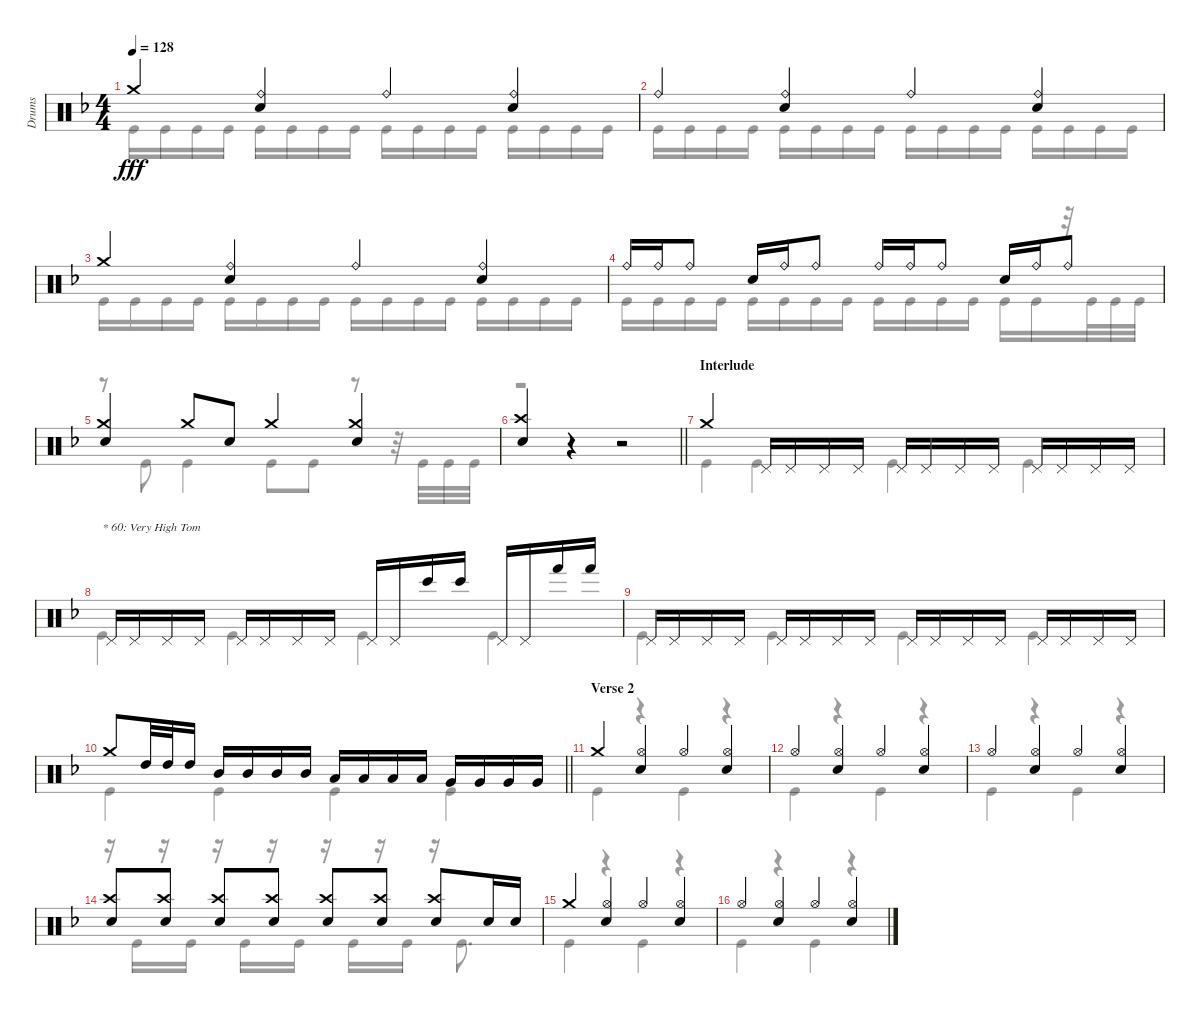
\track ("Drums" "Drums") {instrument percussion}
\staff {score}
\articulation defaults
\voice
\ts (4 4)
\tempo 128
\clef neutral
\ks dminor "Crash medium (hit)".4{dy fff}
("Ride (bell)" "Electric Snare (hit)").4 "Ride (bell)".4 ("Ride (bell)" "Electric Snare (hit)").4 |
"Ride (bell)".4 ("Ride (bell)" "Electric Snare (hit)").4 "Ride (bell)".4 ("Ride (bell)" "Electric Snare (hit)").4 |
"Crash medium (hit)".4 ("Ride (bell)" "Electric Snare (hit)").4 "Ride (bell)".4 ("Ride (bell)" "Electric Snare (hit)").4 |
"Ride (bell)".16 "Ride (bell)".16 "Ride (bell)".8 "Electric Snare (hit)".16 "Ride (bell)".16 "Ride (bell)".8 "Ride (bell)".16 "Ride (bell)".16 "Ride (bell)".8 "Electric Snare (hit)".16 "Ride (bell)".16 "Ride (bell)".8 |
("Crash medium (hit)" "Electric Snare (hit)").4 "Crash medium (hit)".8 "Electric Snare (hit)".8 "Crash medium (hit)".4 ("Crash medium (hit)" "Electric Snare (hit)").4 |
\barLineRight lightlight
("Crash high (hit)" "Electric Snare (hit)").4 r.4 r.2 |
\section ("" "Interlude")
"Crash medium (hit)".4 "Pedal Hi-Hat (hit)".16 "Pedal Hi-Hat (hit)".16 "Pedal Hi-Hat (hit)".16 "Pedal Hi-Hat (hit)".16 "Pedal Hi-Hat (hit)".16 "Pedal Hi-Hat (hit)".16 "Pedal Hi-Hat (hit)".16 "Pedal Hi-Hat (hit)".16 "Pedal Hi-Hat (hit)".16 "Pedal Hi-Hat (hit)".16 "Pedal Hi-Hat (hit)".16 "Pedal Hi-Hat (hit)".16 |
"Pedal Hi-Hat (hit)".16{txt "* 60: Very High Tom"} "Pedal Hi-Hat (hit)".16 "Pedal Hi-Hat (hit)".16 "Pedal Hi-Hat (hit)".16 "Pedal Hi-Hat (hit)".16 "Pedal Hi-Hat (hit)".16 "Pedal Hi-Hat (hit)".16 "Pedal Hi-Hat (hit)".16 "Pedal Hi-Hat (hit)".16 "Pedal Hi-Hat (hit)".16 "Bongo High (hit)".16 "Bongo High (hit)".16 "Pedal Hi-Hat (hit)".16 "Pedal Hi-Hat (hit)".16 "Hand (hit)".16 "Hand (hit)".16 |
"Pedal Hi-Hat (hit)".16 "Pedal Hi-Hat (hit)".16 "Pedal Hi-Hat (hit)".16 "Pedal Hi-Hat (hit)".16 "Pedal Hi-Hat (hit)".16 "Pedal Hi-Hat (hit)".16 "Pedal Hi-Hat (hit)".16 "Pedal Hi-Hat (hit)".16 "Pedal Hi-Hat (hit)".16 "Pedal Hi-Hat (hit)".16 "Pedal Hi-Hat (hit)".16 "Pedal Hi-Hat (hit)".16 "Pedal Hi-Hat (hit)".16 "Pedal Hi-Hat (hit)".16 "Pedal Hi-Hat (hit)".16 "Pedal Hi-Hat (hit)".16 |
\barLineRight lightlight "Crash medium (hit)".8 "High Tom (hit)".32 "High Tom (hit)".32 "High Tom (hit)".16 "Mid Tom (hit)".16 "Mid Tom (hit)".16 "Mid Tom (hit)".16 "Mid Tom (hit)".16 "Low Tom (hit)".16 "Low Tom (hit)".16 "Low Tom (hit)".16 "Low Tom (hit)".16 "Very Low Tom (hit)".16 "Very Low Tom (hit)".16 "Very Low Tom (hit)".16 "Very Low Tom (hit)".16
|
\section ("" "Verse 2")
"Crash medium (hit)".4 ("Hi-Hat (open)" "Electric Snare (hit)").4 "Hi-Hat (open)".4 ("Hi-Hat (open)" "Electric Snare (hit)").4 |
"Hi-Hat (open)".4 ("Hi-Hat (open)" "Electric Snare (hit)").4 "Hi-Hat (open)".4 ("Hi-Hat (open)" "Electric Snare (hit)").4 |
"Hi-Hat (open)".4 ("Hi-Hat (open)" "Electric Snare (hit)").4 "Hi-Hat (open)".4 ("Hi-Hat (open)" "Electric Snare (hit)").4 |
("Crash high (hit)" "Electric Snare (hit)").8 ("Crash high (hit)" "Electric Snare (hit)").8 ("Crash high (hit)" "Electric Snare (hit)").8 ("Crash high (hit)" "Electric Snare (hit)").8 ("Crash high (hit)" "Electric Snare (hit)").8 ("Crash high (hit)" "Electric Snare (hit)").8 ("Crash high (hit)" "Electric Snare (hit)").8 "Electric Snare (hit)".16 "Electric Snare (hit)".16 |
"Crash medium (hit)".4 ("Hi-Hat (open)" "Electric Snare (hit)").4 "Hi-Hat (open)".4 ("Hi-Hat (open)" "Electric Snare (hit)").4 |
"Hi-Hat (open)".4 ("Hi-Hat (open)" "Electric Snare (hit)").4 "Hi-Hat (open)".4 ("Hi-Hat (open)" "Electric Snare (hit)").4
\voice
\clef neutral
\ottava regular
\simile none
\ks dminor "Kick (hit)".16{dy fff} "Kick (hit)".16 "Kick (hit)".16 "Kick (hit)".16 "Kick (hit)".16 "Kick (hit)".16 "Kick (hit)".16 "Kick (hit)".16 "Kick (hit)".16 "Kick (hit)".16 "Kick (hit)".16 "Kick (hit)".16 "Kick (hit)".16 "Kick (hit)".16 "Kick (hit)".16 "Kick (hit)".16
|
"Kick (hit)".16 "Kick (hit)".16 "Kick (hit)".16 "Kick (hit)".16 "Kick (hit)".16 "Kick (hit)".16 "Kick (hit)".16 "Kick (hit)".16 "Kick (hit)".16 "Kick (hit)".16 "Kick (hit)".16 "Kick (hit)".16 "Kick (hit)".16 "Kick (hit)".16 "Kick (hit)".16 "Kick (hit)".16 |
"Kick (hit)".16 "Kick (hit)".16 "Kick (hit)".16 "Kick (hit)".16 "Kick (hit)".16 "Kick (hit)".16 "Kick (hit)".16 "Kick (hit)".16 "Kick (hit)".16 "Kick (hit)".16 "Kick (hit)".16 "Kick (hit)".16 "Kick (hit)".16 "Kick (hit)".16 "Kick (hit)".16 "Kick (hit)".16 |
"Kick (hit)".16 "Kick (hit)".16 "Kick (hit)".16 "Kick (hit)".16 "Kick (hit)".16 "Kick (hit)".16 "Kick (hit)".16 "Kick (hit)".16 "Kick (hit)".16 "Kick (hit)".16 "Kick (hit)".16 "Kick (hit)".16 "Kick (hit)".16 "Kick (hit)".16 r.32 "Kick (hit)".32 "Kick (hit)".32 "Kick (hit)".32 |
r.8 "Kick (hit)".8 "Kick (hit)".4 "Kick (hit)".8 "Kick (hit)".8 r.8 r.32 "Kick (hit)".32 "Kick (hit)".32 "Kick (hit)".32 |
\barLineRight lightlight
r.1 |
"Kick (hit)".4 "Kick (hit)".4 "Kick (hit)".4 "Kick (hit)".4 |
"Kick (hit)".4 "Kick (hit)".4 "Kick (hit)".4 "Kick (hit)".4 |
"Kick (hit)".4 "Kick (hit)".4 "Kick (hit)".4 "Kick (hit)".4 |
\barLineRight lightlight "Kick (hit)".4 "Kick (hit)".4 "Kick (hit)".4 "Kick (hit)".4
|
"Kick (hit)".4 r.4 "Kick (hit)".4 r.4 |
"Kick (hit)".4 r.4 "Kick (hit)".4 r.4 |
"Kick (hit)".4 r.4 "Kick (hit)".4 r.4 |
r.16 "Kick (hit)".16 r.16 "Kick (hit)".16 r.16 "Kick (hit)".16 r.16 "Kick (hit)".16 r.16 "Kick (hit)".16 r.16 "Kick (hit)".16 r.16 "Kick (hit)".8{d} |
"Kick (hit)".4 r.4 "Kick (hit)".4 r.4 |
"Kick (hit)".4 r.4 "Kick (hit)".4 r.4
